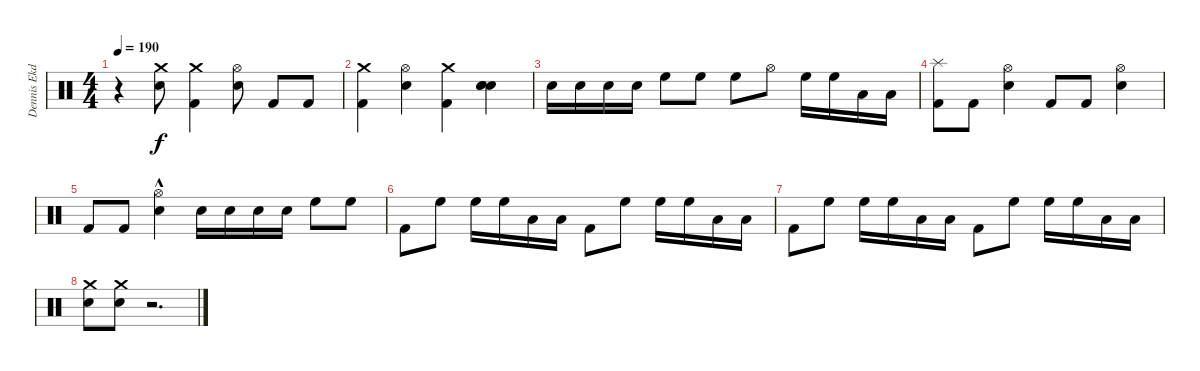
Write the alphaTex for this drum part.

\track ("Dennis Ekdahl" "Dennis Ekd") {instrument percussion}
\staff {score}
\articulation defaults
\ts (4 4)
\tempo 190
\clef neutral
\ks c
r.4{dy f} ("Crash medium (hit)" "Snare (hit) 2").8 ("Crash medium (hit)" "Kick (hit) 2").4 ("Hi-Hat (open)" "Snare (hit) 2").8 "Kick (hit) 2".8 "Kick (hit) 2".8 |
("Crash medium (hit)" "Kick (hit) 2").4 ("Hi-Hat (open)" "Snare (hit) 2").4 ("Crash medium (hit)" "Kick (hit) 2").4 ("Snare (hit) 2" "Snare (hit) 2" "Snare (hit) 2").4 |
"Snare (hit) 2".16 "Snare (hit) 2".16 "Snare (hit) 2".16 "Snare (hit) 2".16 "High Floor Tom (hit)".8 "High Floor Tom (hit)".8 "High Floor Tom (hit)".8 "Hi-Hat (open)".8 "High Floor Tom (hit)".16 "High Floor Tom (hit)".16 "Low Tom (hit)".16 "Low Tom (hit)".16 |
("Splash (hit)" "Kick (hit) 2").8 "Kick (hit) 2".8 ("Hi-Hat (open)" "Snare (hit) 2").4 "Kick (hit) 2".8 "Kick (hit) 2".8 ("Hi-Hat (open)" "Snare (hit) 2").4 |
"Kick (hit) 2".8 "Kick (hit) 2".8 ("Hi-Hat (open)"{hac} "Snare (hit) 2").4 "Snare (hit) 2".16 "Snare (hit) 2".16 "Snare (hit) 2".16 "Snare (hit) 2".16 "High Floor Tom (hit)".8 "High Floor Tom (hit)".8 |
"Kick (hit) 2".8 "High Floor Tom (hit)".8 "High Floor Tom (hit)".16 "High Floor Tom (hit)".16 "Low Tom (hit)".16 "Low Tom (hit)".16 "Kick (hit) 2".8 "High Floor Tom (hit)".8 "High Floor Tom (hit)".16 "High Floor Tom (hit)".16 "Low Tom (hit)".16 "Low Tom (hit)".16 |
"Kick (hit) 2".8 "High Floor Tom (hit)".8 "High Floor Tom (hit)".16 "High Floor Tom (hit)".16 "Low Tom (hit)".16 "Low Tom (hit)".16 "Kick (hit) 2".8 "High Floor Tom (hit)".8 "High Floor Tom (hit)".16 "High Floor Tom (hit)".16 "Low Tom (hit)".16 "Low Tom (hit)".16 |
("Crash medium (hit)" "Snare (hit) 2").8 ("Crash medium (hit)" "Snare (hit) 2").8 r.2{d}
